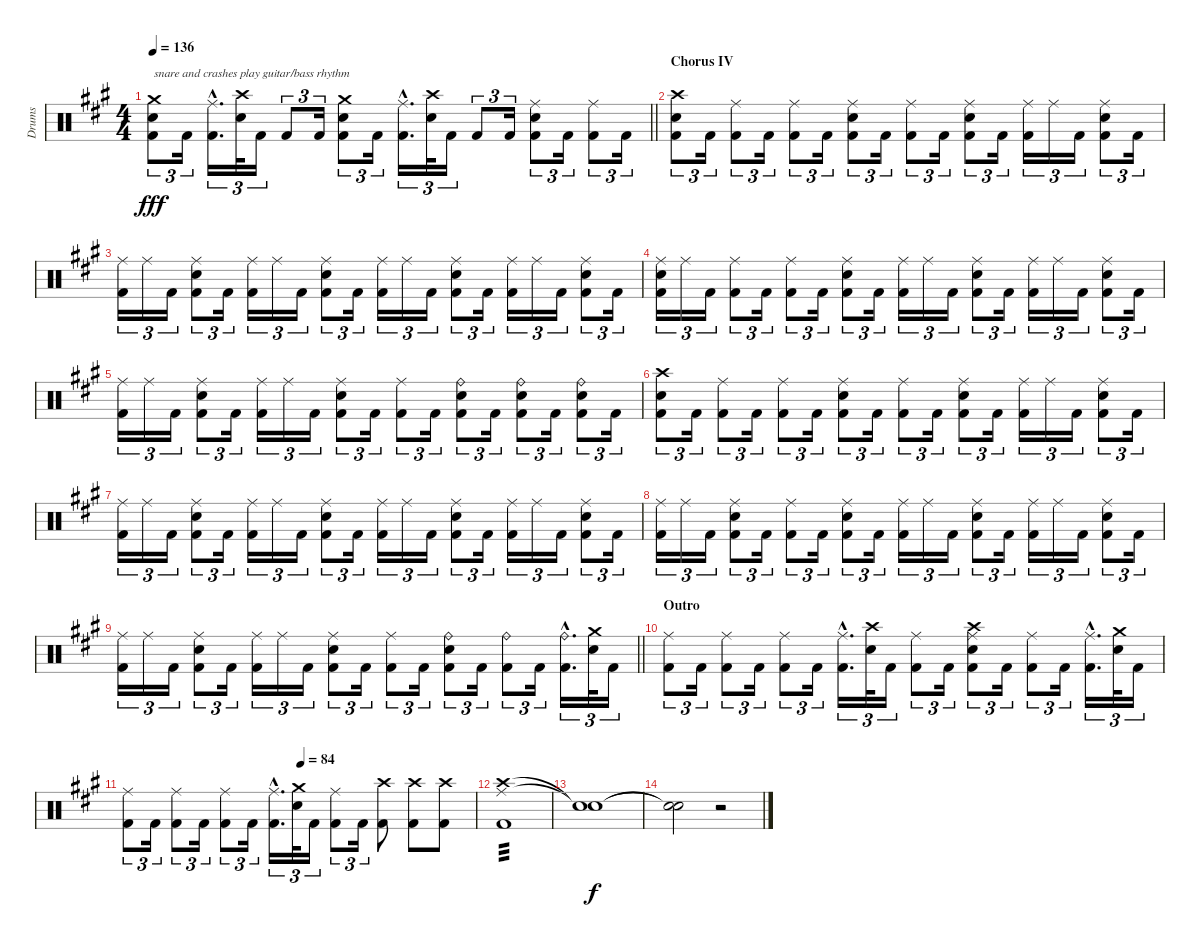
\track ("Drums" "Drums") {instrument percussion}
\staff {score}
\articulation defaults
\ts (4 4)
\tempo 136
\clef neutral
\barLineRight lightlight
\ks a
("Crash medium (hit)" "Snare (hit) 2" "Kick (hit) 2").8{tu (3 2) txt "snare and crashes play guitar/bass rhythm" dy fff} "Kick (hit) 2".16{tu (3 2)} ("Ride (middle)"{hac} "Kick (hit) 2"{hac}).16{d tu (3 2)} ("Crash high (hit)" "Snare (hit) 2").32{tu (3 2)} "Kick (hit) 2".16{tu (3 2)} "Kick (hit) 2".8{tu (3 2)} "Kick (hit) 2".16{tu (3 2)} ("Crash medium (hit)" "Snare (hit) 2" "Kick (hit) 2").8{tu (3 2)} "Kick (hit) 2".16{tu (3 2)} ("Ride (middle)"{hac} "Kick (hit) 2"{hac}).16{d tu (3 2)} ("Crash high (hit)" "Snare (hit) 2").32{tu (3 2)} "Kick (hit) 2".16{tu (3 2)} "Kick (hit) 2".8{tu (3 2)} "Kick (hit) 2".16{tu (3 2)} ("Ride (middle)" "Snare (hit) 2" "Kick (hit) 2").8{tu (3 2)} "Kick (hit) 2".16{tu (3 2)} ("Ride (middle)" "Kick (hit) 2").8{tu (3 2)} "Kick (hit) 2".16{tu (3 2)} |
\section ("" "Chorus IV")
("Crash high (hit)" "Snare (hit) 2" "Kick (hit) 2").8{tu (3 2)} "Kick (hit) 2".16{tu (3 2)} ("Ride (middle)" "Kick (hit) 2").8{tu (3 2)} "Kick (hit) 2".16{tu (3 2)} ("Ride (middle)" "Kick (hit) 2").8{tu (3 2)} "Kick (hit) 2".16{tu (3 2)} ("Ride (middle)" "Snare (hit) 2" "Kick (hit) 2").8{tu (3 2)} "Kick (hit) 2".16{tu (3 2)} ("Ride (middle)" "Kick (hit) 2").8{tu (3 2)} "Kick (hit) 2".16{tu (3 2)} ("Ride (middle)" "Snare (hit) 2" "Kick (hit) 2").8{tu (3 2)} "Kick (hit) 2".16{tu (3 2)} ("Ride (middle)" "Kick (hit) 2").16{tu (3 2)} "Ride (middle)".16{tu (3 2)} "Kick (hit) 2".16{tu (3 2)} ("Ride (middle)" "Snare (hit) 2" "Kick (hit) 2").8{tu (3 2)} "Kick (hit) 2".16{tu (3 2)} |
("Ride (middle)" "Kick (hit) 2").16{tu (3 2)} "Ride (middle)".16{tu (3 2)} "Kick (hit) 2".16{tu (3 2)} ("Ride (middle)" "Snare (hit) 2" "Kick (hit) 2").8{tu (3 2)} "Kick (hit) 2".16{tu (3 2)} ("Ride (middle)" "Kick (hit) 2").16{tu (3 2)} "Ride (middle)".16{tu (3 2)} "Kick (hit) 2".16{tu (3 2)} ("Ride (middle)" "Snare (hit) 2" "Kick (hit) 2").8{tu (3 2)} "Kick (hit) 2".16{tu (3 2)} ("Ride (middle)" "Kick (hit) 2").16{tu (3 2)} "Ride (middle)".16{tu (3 2)} "Kick (hit) 2".16{tu (3 2)} ("Ride (middle)" "Snare (hit) 2" "Kick (hit) 2").8{tu (3 2)} "Kick (hit) 2".16{tu (3 2)} ("Ride (middle)" "Kick (hit) 2").16{tu (3 2)} "Ride (middle)".16{tu (3 2)} "Kick (hit) 2".16{tu (3 2)} ("Ride (middle)" "Snare (hit) 2" "Kick (hit) 2").8{tu (3 2)} "Kick (hit) 2".16{tu (3 2)} |
("Ride (middle)" "Snare (hit) 2" "Kick (hit) 2").16{tu (3 2)} "Ride (middle)".16{tu (3 2)} "Kick (hit) 2".16{tu (3 2)} ("Ride (middle)" "Kick (hit) 2").8{tu (3 2)} "Kick (hit) 2".16{tu (3 2)} ("Ride (middle)" "Kick (hit) 2").8{tu (3 2)} "Kick (hit) 2".16{tu (3 2)} ("Ride (middle)" "Snare (hit) 2" "Kick (hit) 2").8{tu (3 2)} "Kick (hit) 2".16{tu (3 2)} ("Ride (middle)" "Kick (hit) 2").16{tu (3 2)} "Ride (middle)".16{tu (3 2)} "Kick (hit) 2".16{tu (3 2)} ("Ride (middle)" "Snare (hit) 2" "Kick (hit) 2").8{tu (3 2)} "Kick (hit) 2".16{tu (3 2)} ("Ride (middle)" "Kick (hit) 2").16{tu (3 2)} "Ride (middle)".16{tu (3 2)} "Kick (hit) 2".16{tu (3 2)} ("Ride (middle)" "Snare (hit) 2" "Kick (hit) 2").8{tu (3 2)} "Kick (hit) 2".16{tu (3 2)} |
("Ride (middle)" "Kick (hit) 2").16{tu (3 2)} "Ride (middle)".16{tu (3 2)} "Kick (hit) 2".16{tu (3 2)} ("Ride (middle)" "Snare (hit) 2" "Kick (hit) 2").8{tu (3 2)} "Kick (hit) 2".16{tu (3 2)} ("Ride (middle)" "Kick (hit) 2").16{tu (3 2)} "Ride (middle)".16{tu (3 2)} "Kick (hit) 2".16{tu (3 2)} ("Ride (middle)" "Snare (hit) 2" "Kick (hit) 2").8{tu (3 2)} "Kick (hit) 2".16{tu (3 2)} ("Ride (middle)" "Kick (hit) 2").8{tu (3 2)} "Kick (hit) 2".16{tu (3 2)} ("Ride (bell)" "Snare (hit) 2" "Kick (hit) 2").8{tu (3 2)} "Kick (hit) 2".16{tu (3 2)} ("Ride (bell)" "Snare (hit) 2" "Kick (hit) 2").8{tu (3 2)} "Kick (hit) 2".16{tu (3 2)} ("Ride (bell)" "Snare (hit) 2" "Kick (hit) 2").8{tu (3 2)} "Kick (hit) 2".16{tu (3 2)} |
("Crash high (hit)" "Snare (hit) 2" "Kick (hit) 2").8{tu (3 2)} "Kick (hit) 2".16{tu (3 2)} ("Ride (middle)" "Kick (hit) 2").8{tu (3 2)} "Kick (hit) 2".16{tu (3 2)} ("Ride (middle)" "Kick (hit) 2").8{tu (3 2)} "Kick (hit) 2".16{tu (3 2)} ("Ride (middle)" "Snare (hit) 2" "Kick (hit) 2").8{tu (3 2)} "Kick (hit) 2".16{tu (3 2)} ("Ride (middle)" "Kick (hit) 2").8{tu (3 2)} "Kick (hit) 2".16{tu (3 2)} ("Ride (middle)" "Snare (hit) 2" "Kick (hit) 2").8{tu (3 2)} "Kick (hit) 2".16{tu (3 2)} ("Ride (middle)" "Kick (hit) 2").16{tu (3 2)} "Ride (middle)".16{tu (3 2)} "Kick (hit) 2".16{tu (3 2)} ("Ride (middle)" "Snare (hit) 2" "Kick (hit) 2").8{tu (3 2)} "Kick (hit) 2".16{tu (3 2)} |
("Ride (middle)" "Kick (hit) 2").16{tu (3 2)} "Ride (middle)".16{tu (3 2)} "Kick (hit) 2".16{tu (3 2)} ("Ride (middle)" "Snare (hit) 2" "Kick (hit) 2").8{tu (3 2)} "Kick (hit) 2".16{tu (3 2)} ("Ride (middle)" "Kick (hit) 2").16{tu (3 2)} "Ride (middle)".16{tu (3 2)} "Kick (hit) 2".16{tu (3 2)} ("Ride (middle)" "Snare (hit) 2" "Kick (hit) 2").8{tu (3 2)} "Kick (hit) 2".16{tu (3 2)} ("Ride (middle)" "Kick (hit) 2").16{tu (3 2)} "Ride (middle)".16{tu (3 2)} "Kick (hit) 2".16{tu (3 2)} ("Ride (middle)" "Snare (hit) 2" "Kick (hit) 2").8{tu (3 2)} "Kick (hit) 2".16{tu (3 2)} ("Ride (middle)" "Kick (hit) 2").16{tu (3 2)} "Ride (middle)".16{tu (3 2)} "Kick (hit) 2".16{tu (3 2)} ("Ride (middle)" "Snare (hit) 2" "Kick (hit) 2").8{tu (3 2)} "Kick (hit) 2".16{tu (3 2)} |
("Ride (middle)" "Kick (hit) 2").16{tu (3 2)} "Ride (middle)".16{tu (3 2)} "Kick (hit) 2".16{tu (3 2)} ("Ride (middle)" "Snare (hit) 2" "Kick (hit) 2").8{tu (3 2)} "Kick (hit) 2".16{tu (3 2)} ("Ride (middle)" "Kick (hit) 2").8{tu (3 2)} "Kick (hit) 2".16{tu (3 2)} ("Ride (middle)" "Snare (hit) 2" "Kick (hit) 2").8{tu (3 2)} "Kick (hit) 2".16{tu (3 2)} ("Ride (middle)" "Kick (hit) 2").16{tu (3 2)} "Ride (middle)".16{tu (3 2)} "Kick (hit) 2".16{tu (3 2)} ("Ride (middle)" "Snare (hit) 2" "Kick (hit) 2").8{tu (3 2)} "Kick (hit) 2".16{tu (3 2)} ("Ride (middle)" "Kick (hit) 2").16{tu (3 2)} "Ride (middle)".16{tu (3 2)} "Kick (hit) 2".16{tu (3 2)} ("Ride (middle)" "Snare (hit) 2" "Kick (hit) 2").8{tu (3 2)} "Kick (hit) 2".16{tu (3 2)} |
\barLineRight lightlight
("Ride (middle)" "Kick (hit) 2").16{tu (3 2)} "Ride (middle)".16{tu (3 2)} "Kick (hit) 2".16{tu (3 2)} ("Ride (middle)" "Snare (hit) 2" "Kick (hit) 2").8{tu (3 2)} "Kick (hit) 2".16{tu (3 2)} ("Ride (middle)" "Kick (hit) 2").16{tu (3 2)} "Ride (middle)".16{tu (3 2)} "Kick (hit) 2".16{tu (3 2)} ("Ride (middle)" "Snare (hit) 2" "Kick (hit) 2").8{tu (3 2)} "Kick (hit) 2".16{tu (3 2)} ("Ride (middle)" "Kick (hit) 2").8{tu (3 2)} "Kick (hit) 2".16{tu (3 2)} ("Ride (bell)" "Snare (hit) 2" "Kick (hit) 2").8{tu (3 2)} "Kick (hit) 2".16{tu (3 2)} ("Ride (bell)" "Kick (hit) 2").8{tu (3 2)} "Kick (hit) 2".16{tu (3 2)} ("Ride (bell)"{hac} "Kick (hit) 2"{hac}).16{d tu (3 2)} ("Crash medium (hit)" "Snare (hit) 2").32{tu (3 2)} "Kick (hit) 2".16{tu (3 2)} |
\section ("" "Outro")
("Ride (middle)" "Kick (hit) 2").8{tu (3 2)} "Kick (hit) 2".16{tu (3 2)} ("Ride (middle)" "Kick (hit) 2").8{tu (3 2)} "Kick (hit) 2".16{tu (3 2)} ("Ride (middle)" "Kick (hit) 2").8{tu (3 2)} "Kick (hit) 2".16{tu (3 2)} ("Ride (middle)"{hac} "Kick (hit) 2"{hac}).16{d tu (3 2)} ("Crash high (hit)" "Snare (hit) 2").32{tu (3 2)} "Kick (hit) 2".16{tu (3 2)} ("Ride (middle)" "Kick (hit) 2").8{tu (3 2)} "Kick (hit) 2".16{tu (3 2)} ("Ride (middle)" "Crash high (hit)" "Snare (hit) 2" "Kick (hit) 2").8{tu (3 2)} "Kick (hit) 2".16{tu (3 2)} ("Ride (middle)" "Kick (hit) 2").8{tu (3 2)} "Kick (hit) 2".16{tu (3 2)} ("Ride (middle)"{hac} "Kick (hit) 2"{hac}).16{d tu (3 2)} ("Crash medium (hit)" "Snare (hit) 2").32{tu (3 2)} "Kick (hit) 2".16{tu (3 2)} |
\tempo (84 0.5)
("Ride (middle)" "Kick (hit) 2").8{tu (3 2)} "Kick (hit) 2".16{tu (3 2)} ("Ride (middle)" "Kick (hit) 2").8{tu (3 2)} "Kick (hit) 2".16{tu (3 2)} ("Ride (middle)" "Kick (hit) 2").8{tu (3 2)} "Kick (hit) 2".16{tu (3 2)} ("Ride (middle)"{hac} "Kick (hit) 2"{hac}).16{d tu (3 2)} ("Crash medium (hit)" "Snare (hit) 2").32{tu (3 2)} "Kick (hit) 2".16{tu (3 2)} ("Ride (middle)" "Kick (hit) 2").8{tu (3 2)} "Kick (hit) 2".16{tu (3 2)} ("Crash high (hit)" "Kick (hit) 2").8 ("Crash high (hit)" "Kick (hit) 2").8 ("Crash high (hit)" "Kick (hit) 2").8 |
("Ride (middle)" "Crash high (hit)" "Kick (hit) 2").1{tp 3 volume 3} |
("Snare (hit)"{t} "Snare (hit)"{t}).1{dy f} |
("Snare (hit)"{t} "Snare (hit)"{t}).2 r.2
